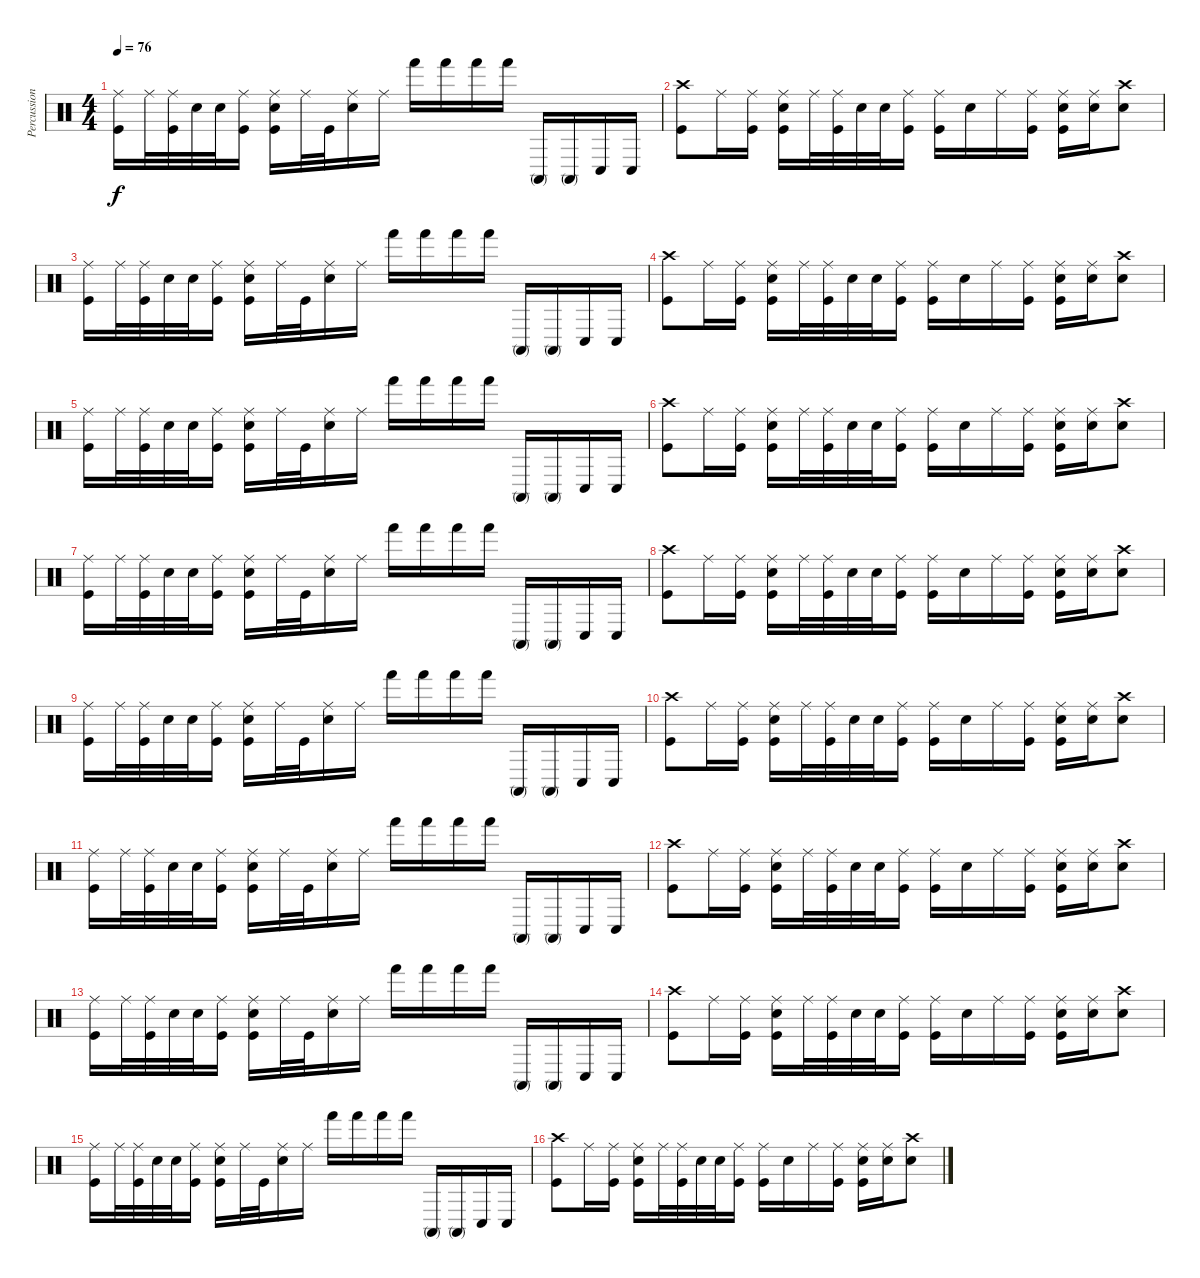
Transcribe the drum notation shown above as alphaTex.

\track ("Percussions" "Percussion") {instrument percussion}
\staff {score}
\articulation defaults
\ts (4 4)
\tempo 76
\clef neutral
\ks c
("Ride (middle)" "Kick (hit)").16{dy f} "Ride (middle)".32 ("Kick (hit)" "Ride (middle)").32 "Electric Snare (hit)".32 "Electric Snare (hit)".32 ("Kick (hit)" "Ride (middle)").16 ("Ride (middle)" "Kick (hit)" "Electric Snare (hit)").16 "Ride (middle)".32 "Kick (hit)".32 ("Ride (middle)" "Electric Snare (hit)").16 "Ride (middle)".16 "Hand (hit)".16 "Hand (hit)".16 "Hand (hit)".16 "Hand (hit)".16 "Conga high (mute)".16 "Conga high (mute)".16 "Conga low (hit)".16 "Conga low (hit)".16 |
("Crash high (hit)" "Kick (hit)").8 "Ride (middle)".16 ("Kick (hit)" "Ride (middle)").16 ("Electric Snare (hit)" "Kick (hit)" "Ride (middle)").16 "Ride (middle)".32 ("Kick (hit)" "Ride (middle)").32 "Electric Snare (hit)".32 "Electric Snare (hit)".32 ("Kick (hit)" "Ride (middle)").16 ("Kick (hit)" "Ride (middle)").16 "Electric Snare (hit)".16 "Ride (middle)".16 ("Kick (hit)" "Ride (middle)").16 ("Kick (hit)" "Electric Snare (hit)" "Ride (middle)").16 ("Electric Snare (hit)" "Ride (middle)").16 ("Electric Snare (hit)" "Crash high (hit)").8 |
("Ride (middle)" "Kick (hit)").16 "Ride (middle)".32 ("Kick (hit)" "Ride (middle)").32 "Electric Snare (hit)".32 "Electric Snare (hit)".32 ("Kick (hit)" "Ride (middle)").16 ("Ride (middle)" "Kick (hit)" "Electric Snare (hit)").16 "Ride (middle)".32 "Kick (hit)".32 ("Ride (middle)" "Electric Snare (hit)").16 "Ride (middle)".16 "Hand (hit)".16 "Hand (hit)".16 "Hand (hit)".16 "Hand (hit)".16 "Conga high (mute)".16 "Conga high (mute)".16 "Conga low (hit)".16 "Conga low (hit)".16 |
("Crash high (hit)" "Kick (hit)").8 "Ride (middle)".16 ("Kick (hit)" "Ride (middle)").16 ("Electric Snare (hit)" "Kick (hit)" "Ride (middle)").16 "Ride (middle)".32 ("Kick (hit)" "Ride (middle)").32 "Electric Snare (hit)".32 "Electric Snare (hit)".32 ("Kick (hit)" "Ride (middle)").16 ("Kick (hit)" "Ride (middle)").16 "Electric Snare (hit)".16 "Ride (middle)".16 ("Kick (hit)" "Ride (middle)").16 ("Kick (hit)" "Electric Snare (hit)" "Ride (middle)").16 ("Electric Snare (hit)" "Ride (middle)").16 ("Electric Snare (hit)" "Crash high (hit)").8 |
("Ride (middle)" "Kick (hit)").16 "Ride (middle)".32 ("Kick (hit)" "Ride (middle)").32 "Electric Snare (hit)".32 "Electric Snare (hit)".32 ("Kick (hit)" "Ride (middle)").16 ("Ride (middle)" "Kick (hit)" "Electric Snare (hit)").16 "Ride (middle)".32 "Kick (hit)".32 ("Ride (middle)" "Electric Snare (hit)").16 "Ride (middle)".16 "Hand (hit)".16 "Hand (hit)".16 "Hand (hit)".16 "Hand (hit)".16 "Conga high (mute)".16 "Conga high (mute)".16 "Conga low (hit)".16 "Conga low (hit)".16 |
("Crash high (hit)" "Kick (hit)").8 "Ride (middle)".16 ("Kick (hit)" "Ride (middle)").16 ("Electric Snare (hit)" "Kick (hit)" "Ride (middle)").16 "Ride (middle)".32 ("Kick (hit)" "Ride (middle)").32 "Electric Snare (hit)".32 "Electric Snare (hit)".32 ("Kick (hit)" "Ride (middle)").16 ("Kick (hit)" "Ride (middle)").16 "Electric Snare (hit)".16 "Ride (middle)".16 ("Kick (hit)" "Ride (middle)").16 ("Kick (hit)" "Electric Snare (hit)" "Ride (middle)").16 ("Electric Snare (hit)" "Ride (middle)").16 ("Electric Snare (hit)" "Crash high (hit)").8 |
("Ride (middle)" "Kick (hit)").16 "Ride (middle)".32 ("Kick (hit)" "Ride (middle)").32 "Electric Snare (hit)".32 "Electric Snare (hit)".32 ("Kick (hit)" "Ride (middle)").16 ("Ride (middle)" "Kick (hit)" "Electric Snare (hit)").16 "Ride (middle)".32 "Kick (hit)".32 ("Ride (middle)" "Electric Snare (hit)").16 "Ride (middle)".16 "Hand (hit)".16 "Hand (hit)".16 "Hand (hit)".16 "Hand (hit)".16 "Conga high (mute)".16 "Conga high (mute)".16 "Conga low (hit)".16 "Conga low (hit)".16 |
("Crash high (hit)" "Kick (hit)").8 "Ride (middle)".16 ("Kick (hit)" "Ride (middle)").16 ("Electric Snare (hit)" "Kick (hit)" "Ride (middle)").16 "Ride (middle)".32 ("Kick (hit)" "Ride (middle)").32 "Electric Snare (hit)".32 "Electric Snare (hit)".32 ("Kick (hit)" "Ride (middle)").16 ("Kick (hit)" "Ride (middle)").16 "Electric Snare (hit)".16 "Ride (middle)".16 ("Kick (hit)" "Ride (middle)").16 ("Kick (hit)" "Electric Snare (hit)" "Ride (middle)").16 ("Electric Snare (hit)" "Ride (middle)").16 ("Electric Snare (hit)" "Crash high (hit)").8 |
("Ride (middle)" "Kick (hit)").16 "Ride (middle)".32 ("Kick (hit)" "Ride (middle)").32 "Electric Snare (hit)".32 "Electric Snare (hit)".32 ("Kick (hit)" "Ride (middle)").16 ("Ride (middle)" "Kick (hit)" "Electric Snare (hit)").16 "Ride (middle)".32 "Kick (hit)".32 ("Ride (middle)" "Electric Snare (hit)").16 "Ride (middle)".16 "Hand (hit)".16 "Hand (hit)".16 "Hand (hit)".16 "Hand (hit)".16 "Conga high (mute)".16 "Conga high (mute)".16 "Conga low (hit)".16 "Conga low (hit)".16 |
("Crash high (hit)" "Kick (hit)").8 "Ride (middle)".16 ("Kick (hit)" "Ride (middle)").16 ("Electric Snare (hit)" "Kick (hit)" "Ride (middle)").16 "Ride (middle)".32 ("Kick (hit)" "Ride (middle)").32 "Electric Snare (hit)".32 "Electric Snare (hit)".32 ("Kick (hit)" "Ride (middle)").16 ("Kick (hit)" "Ride (middle)").16 "Electric Snare (hit)".16 "Ride (middle)".16 ("Kick (hit)" "Ride (middle)").16 ("Kick (hit)" "Electric Snare (hit)" "Ride (middle)").16 ("Electric Snare (hit)" "Ride (middle)").16 ("Electric Snare (hit)" "Crash high (hit)").8 |
("Ride (middle)" "Kick (hit)").16 "Ride (middle)".32 ("Kick (hit)" "Ride (middle)").32 "Electric Snare (hit)".32 "Electric Snare (hit)".32 ("Kick (hit)" "Ride (middle)").16 ("Ride (middle)" "Kick (hit)" "Electric Snare (hit)").16 "Ride (middle)".32 "Kick (hit)".32 ("Ride (middle)" "Electric Snare (hit)").16 "Ride (middle)".16 "Hand (hit)".16 "Hand (hit)".16 "Hand (hit)".16 "Hand (hit)".16 "Conga high (mute)".16 "Conga high (mute)".16 "Conga low (hit)".16 "Conga low (hit)".16 |
("Crash high (hit)" "Kick (hit)").8 "Ride (middle)".16 ("Kick (hit)" "Ride (middle)").16 ("Electric Snare (hit)" "Kick (hit)" "Ride (middle)").16 "Ride (middle)".32 ("Kick (hit)" "Ride (middle)").32 "Electric Snare (hit)".32 "Electric Snare (hit)".32 ("Kick (hit)" "Ride (middle)").16 ("Kick (hit)" "Ride (middle)").16 "Electric Snare (hit)".16 "Ride (middle)".16 ("Kick (hit)" "Ride (middle)").16 ("Kick (hit)" "Electric Snare (hit)" "Ride (middle)").16 ("Electric Snare (hit)" "Ride (middle)").16 ("Electric Snare (hit)" "Crash high (hit)").8 |
("Ride (middle)" "Kick (hit)").16 "Ride (middle)".32 ("Kick (hit)" "Ride (middle)").32 "Electric Snare (hit)".32 "Electric Snare (hit)".32 ("Kick (hit)" "Ride (middle)").16 ("Ride (middle)" "Kick (hit)" "Electric Snare (hit)").16 "Ride (middle)".32 "Kick (hit)".32 ("Ride (middle)" "Electric Snare (hit)").16 "Ride (middle)".16 "Hand (hit)".16 "Hand (hit)".16 "Hand (hit)".16 "Hand (hit)".16 "Conga high (mute)".16 "Conga high (mute)".16 "Conga low (hit)".16 "Conga low (hit)".16 |
("Crash high (hit)" "Kick (hit)").8 "Ride (middle)".16 ("Kick (hit)" "Ride (middle)").16 ("Electric Snare (hit)" "Kick (hit)" "Ride (middle)").16 "Ride (middle)".32 ("Kick (hit)" "Ride (middle)").32 "Electric Snare (hit)".32 "Electric Snare (hit)".32 ("Kick (hit)" "Ride (middle)").16 ("Kick (hit)" "Ride (middle)").16 "Electric Snare (hit)".16 "Ride (middle)".16 ("Kick (hit)" "Ride (middle)").16 ("Kick (hit)" "Electric Snare (hit)" "Ride (middle)").16 ("Electric Snare (hit)" "Ride (middle)").16 ("Electric Snare (hit)" "Crash high (hit)").8 |
("Kick (hit)" "Ride (middle)").16 "Ride (middle)".32 ("Kick (hit)" "Ride (middle)").32 "Electric Snare (hit)".32 "Electric Snare (hit)".32 ("Kick (hit)" "Ride (middle)").16 ("Ride (middle)" "Kick (hit)" "Electric Snare (hit)").16 "Ride (middle)".32 "Kick (hit)".32 ("Ride (middle)" "Electric Snare (hit)").16 "Ride (middle)".16 "Hand (hit)".16 "Hand (hit)".16 "Hand (hit)".16 "Hand (hit)".16 "Conga high (mute)".16 "Conga high (mute)".16 "Conga low (hit)".16 "Conga low (hit)".16 |
("Kick (hit)" "Crash high (hit)").8 "Ride (middle)".16 ("Kick (hit)" "Ride (middle)").16 ("Electric Snare (hit)" "Kick (hit)" "Ride (middle)").16 "Ride (middle)".32 ("Kick (hit)" "Ride (middle)").32 "Electric Snare (hit)".32 "Electric Snare (hit)".32 ("Kick (hit)" "Ride (middle)").16 ("Kick (hit)" "Ride (middle)").16 "Electric Snare (hit)".16 "Ride (middle)".16 ("Kick (hit)" "Ride (middle)").16 ("Kick (hit)" "Electric Snare (hit)" "Ride (middle)").16 ("Electric Snare (hit)" "Ride (middle)").16 ("Electric Snare (hit)" "Crash high (hit)").8
